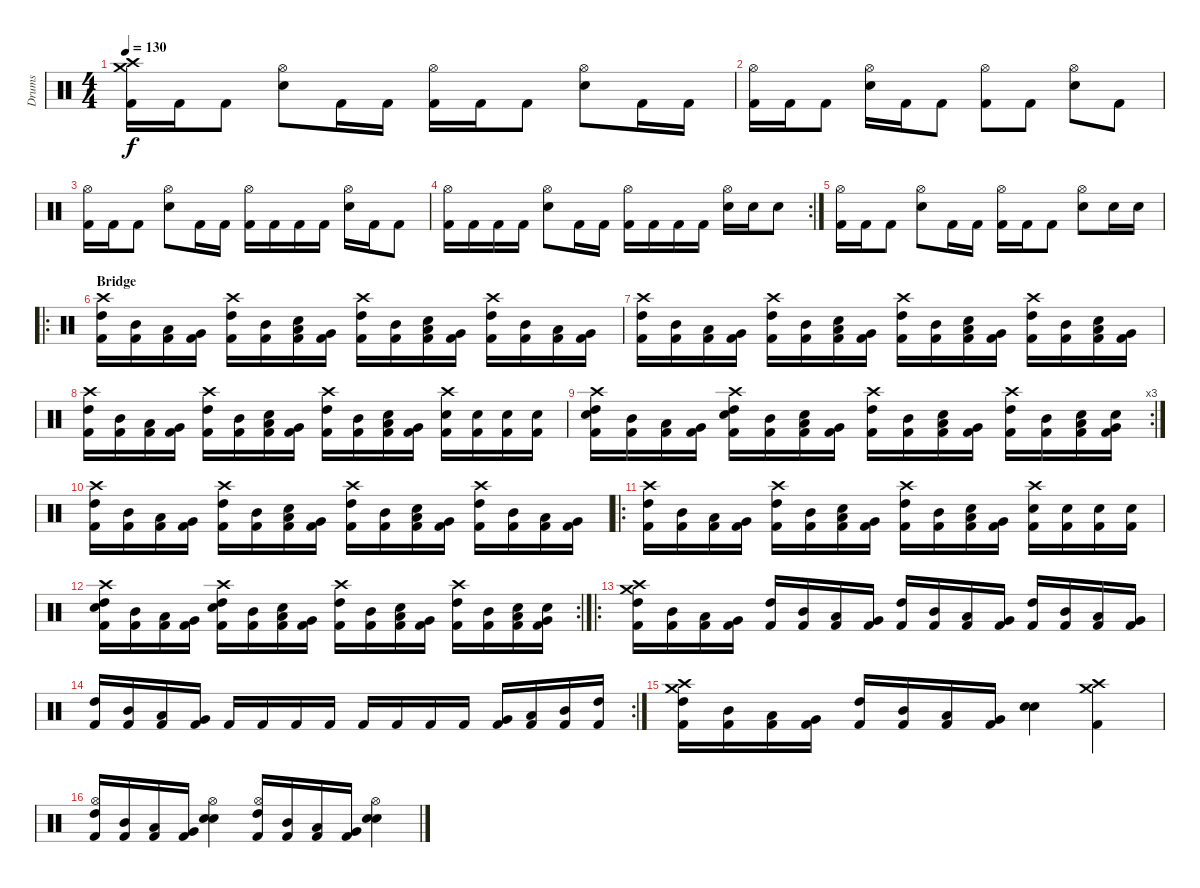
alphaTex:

\track ("Drums" "Drums") {instrument percussion}
\staff {score}
\articulation defaults
\ts (4 4)
\tempo 130
\clef neutral
\ks c
("Crash high (hit)" "Crash medium (hit)" "Kick (hit) 2").16{dy f} "Kick (hit) 2".16 "Kick (hit) 2".8 ("Hi-Hat (open)" "Electric Snare (hit)").8 "Kick (hit) 2".16 "Kick (hit) 2".16 ("Hi-Hat (open)" "Kick (hit) 2").16 "Kick (hit) 2".16 "Kick (hit) 2".8 ("Hi-Hat (open)" "Electric Snare (hit)").8 "Kick (hit) 2".16 "Kick (hit) 2".16 |
("Hi-Hat (open)" "Kick (hit) 2").16 "Kick (hit) 2".16 "Kick (hit) 2".8 ("Hi-Hat (open)" "Electric Snare (hit)").16 "Kick (hit) 2".16 "Kick (hit) 2".8 ("Hi-Hat (open)" "Kick (hit) 2").8 "Kick (hit) 2".8 ("Hi-Hat (open)" "Electric Snare (hit)").8 "Kick (hit) 2".8 |
("Hi-Hat (open)" "Kick (hit) 2").16 "Kick (hit) 2".16 "Kick (hit) 2".8 ("Hi-Hat (open)" "Electric Snare (hit)").8 "Kick (hit) 2".16 "Kick (hit) 2".16 ("Hi-Hat (open)" "Kick (hit) 2").16 "Kick (hit) 2".16 "Kick (hit) 2".16 "Kick (hit) 2".16 ("Hi-Hat (open)" "Electric Snare (hit)").16 "Kick (hit) 2".16 "Kick (hit) 2".8 |
\rc 2
("Hi-Hat (open)" "Kick (hit) 2").16 "Kick (hit) 2".16 "Kick (hit) 2".16 "Kick (hit) 2".16 ("Hi-Hat (open)" "Electric Snare (hit)").8 "Kick (hit) 2".16 "Kick (hit) 2".16 ("Hi-Hat (open)" "Kick (hit) 2").16 "Kick (hit) 2".16 "Kick (hit) 2".16 "Kick (hit) 2".16 ("Hi-Hat (open)" "Electric Snare (hit)").16 "Electric Snare (hit)".16 "Electric Snare (hit)".8 |
("Hi-Hat (open)" "Kick (hit) 2").16 "Kick (hit) 2".16 "Kick (hit) 2".8 ("Hi-Hat (open)" "Electric Snare (hit)").8 "Kick (hit) 2".16 "Kick (hit) 2".16 ("Hi-Hat (open)" "Kick (hit) 2").16 "Kick (hit) 2".16 "Kick (hit) 2".8 ("Hi-Hat (open)" "Electric Snare (hit)").8 "Electric Snare (hit)".16 "Electric Snare (hit)".16 |
\ro
\section ("" "Bridge")
("Crash high (hit)" "High Tom (hit)" "Kick (hit) 2").16 ("Mid Tom (hit)" "Kick (hit) 2").16 ("Low Tom (hit)" "Kick (hit) 2").16 ("Very Low Tom (hit)" "Kick (hit) 2").16 ("Crash high (hit)" "High Tom (hit)" "Kick (hit) 2").16 ("Mid Tom (hit)" "Kick (hit) 2").16 ("Low Tom (hit)" "Electric Snare (hit)" "Kick (hit) 2").16 ("Very Low Tom (hit)" "Kick (hit) 2").16 ("Crash high (hit)" "High Tom (hit)" "Kick (hit) 2").16 ("Mid Tom (hit)" "Kick (hit) 2").16 ("Low Tom (hit)" "Electric Snare (hit)" "Kick (hit) 2").16 ("Very Low Tom (hit)" "Kick (hit) 2").16 ("Crash high (hit)" "High Tom (hit)" "Kick (hit) 2").16 ("Mid Tom (hit)" "Kick (hit) 2").16 ("Low Tom (hit)" "Kick (hit) 2").16 ("Very Low Tom (hit)" "Kick (hit) 2").16 |
("Crash high (hit)" "High Tom (hit)" "Kick (hit) 2").16 ("Mid Tom (hit)" "Kick (hit) 2").16 ("Low Tom (hit)" "Kick (hit) 2").16 ("Very Low Tom (hit)" "Kick (hit) 2").16 ("Crash high (hit)" "High Tom (hit)" "Kick (hit) 2").16 ("Mid Tom (hit)" "Kick (hit) 2").16 ("Low Tom (hit)" "Electric Snare (hit)" "Kick (hit) 2").16 ("Very Low Tom (hit)" "Kick (hit) 2").16 ("Crash high (hit)" "High Tom (hit)" "Kick (hit) 2").16 ("Mid Tom (hit)" "Kick (hit) 2").16 ("Low Tom (hit)" "Electric Snare (hit)" "Kick (hit) 2").16 ("Very Low Tom (hit)" "Kick (hit) 2").16 ("Crash high (hit)" "High Tom (hit)" "Kick (hit) 2").16 ("Mid Tom (hit)" "Kick (hit) 2").16 ("Low Tom (hit)" "Electric Snare (hit)" "Kick (hit) 2").16 ("Very Low Tom (hit)" "Kick (hit) 2").16 |
("Crash high (hit)" "High Tom (hit)" "Kick (hit) 2").16 ("Mid Tom (hit)" "Kick (hit) 2").16 ("Low Tom (hit)" "Kick (hit) 2").16 ("Very Low Tom (hit)" "Kick (hit) 2").16 ("Crash high (hit)" "High Tom (hit)" "Kick (hit) 2").16 ("Mid Tom (hit)" "Kick (hit) 2").16 ("Low Tom (hit)" "Electric Snare (hit)" "Kick (hit) 2").16 ("Very Low Tom (hit)" "Kick (hit) 2").16 ("Crash high (hit)" "High Tom (hit)" "Kick (hit) 2").16 ("Mid Tom (hit)" "Kick (hit) 2").16 ("Low Tom (hit)" "Electric Snare (hit)" "Kick (hit) 2").16 ("Very Low Tom (hit)" "Kick (hit) 2").16 ("Crash high (hit)" "Electric Snare (hit)" "Kick (hit) 2").16 ("Electric Snare (hit)" "Kick (hit) 2").16 ("Electric Snare (hit)" "Kick (hit) 2").16 ("Electric Snare (hit)" "Kick (hit) 2").16 |
\rc 3
("Crash high (hit)" "High Tom (hit)" "Electric Snare (hit)" "Kick (hit) 2").16 ("Mid Tom (hit)" "Kick (hit) 2").16 ("Low Tom (hit)" "Kick (hit) 2").16 ("Very Low Tom (hit)" "Kick (hit) 2").16 ("Crash high (hit)" "High Tom (hit)" "Electric Snare (hit)" "Kick (hit) 2").16 ("Mid Tom (hit)" "Kick (hit) 2").16 ("Low Tom (hit)" "Electric Snare (hit)" "Kick (hit) 2").16 ("Very Low Tom (hit)" "Kick (hit) 2").16 ("Crash high (hit)" "High Tom (hit)" "Kick (hit) 2").16 ("Mid Tom (hit)" "Kick (hit) 2").16 ("Low Tom (hit)" "Electric Snare (hit)" "Kick (hit) 2").16 ("Very Low Tom (hit)" "Kick (hit) 2").16 ("Crash high (hit)" "High Tom (hit)" "Kick (hit) 2").16 ("Mid Tom (hit)" "Kick (hit) 2").16 ("Low Tom (hit)" "Electric Snare (hit)" "Kick (hit) 2").16 ("Very Low Tom (hit)" "Electric Snare (hit)" "Kick (hit) 2").16 |
("Crash high (hit)" "High Tom (hit)" "Kick (hit) 2").16 ("Mid Tom (hit)" "Kick (hit) 2").16 ("Low Tom (hit)" "Kick (hit) 2").16 ("Very Low Tom (hit)" "Kick (hit) 2").16 ("Crash high (hit)" "High Tom (hit)" "Kick (hit) 2").16 ("Mid Tom (hit)" "Kick (hit) 2").16 ("Low Tom (hit)" "Electric Snare (hit)" "Kick (hit) 2").16 ("Very Low Tom (hit)" "Kick (hit) 2").16 ("Crash high (hit)" "High Tom (hit)" "Kick (hit) 2").16 ("Mid Tom (hit)" "Kick (hit) 2").16 ("Low Tom (hit)" "Electric Snare (hit)" "Kick (hit) 2").16 ("Very Low Tom (hit)" "Kick (hit) 2").16 ("Crash high (hit)" "High Tom (hit)" "Kick (hit) 2").16 ("Mid Tom (hit)" "Kick (hit) 2").16 ("Low Tom (hit)" "Kick (hit) 2").16 ("Very Low Tom (hit)" "Kick (hit) 2").16 |
\ro
("Crash high (hit)" "High Tom (hit)" "Kick (hit) 2").16 ("Mid Tom (hit)" "Kick (hit) 2").16 ("Low Tom (hit)" "Kick (hit) 2").16 ("Very Low Tom (hit)" "Kick (hit) 2").16 ("Crash high (hit)" "High Tom (hit)" "Kick (hit) 2").16 ("Mid Tom (hit)" "Kick (hit) 2").16 ("Low Tom (hit)" "Electric Snare (hit)" "Kick (hit) 2").16 ("Very Low Tom (hit)" "Kick (hit) 2").16 ("Crash high (hit)" "High Tom (hit)" "Kick (hit) 2").16 ("Mid Tom (hit)" "Kick (hit) 2").16 ("Low Tom (hit)" "Electric Snare (hit)" "Kick (hit) 2").16 ("Very Low Tom (hit)" "Kick (hit) 2").16 ("Crash high (hit)" "Electric Snare (hit)" "Kick (hit) 2").16 ("Electric Snare (hit)" "Kick (hit) 2").16 ("Electric Snare (hit)" "Kick (hit) 2").16 ("Electric Snare (hit)" "Kick (hit) 2").16 |
\rc 2
("Crash high (hit)" "High Tom (hit)" "Electric Snare (hit)" "Kick (hit) 2").16 ("Mid Tom (hit)" "Kick (hit) 2").16 ("Low Tom (hit)" "Kick (hit) 2").16 ("Very Low Tom (hit)" "Kick (hit) 2").16 ("Crash high (hit)" "High Tom (hit)" "Electric Snare (hit)" "Kick (hit) 2").16 ("Mid Tom (hit)" "Kick (hit) 2").16 ("Low Tom (hit)" "Electric Snare (hit)" "Kick (hit) 2").16 ("Very Low Tom (hit)" "Kick (hit) 2").16 ("Crash high (hit)" "High Tom (hit)" "Kick (hit) 2").16 ("Mid Tom (hit)" "Kick (hit) 2").16 ("Low Tom (hit)" "Electric Snare (hit)" "Kick (hit) 2").16 ("Very Low Tom (hit)" "Kick (hit) 2").16 ("Crash high (hit)" "High Tom (hit)" "Kick (hit) 2").16 ("Mid Tom (hit)" "Kick (hit) 2").16 ("Low Tom (hit)" "Electric Snare (hit)" "Kick (hit) 2").16 ("Very Low Tom (hit)" "Electric Snare (hit)" "Kick (hit) 2").16 |
\ro
("Crash high (hit)" "Crash medium (hit)" "High Tom (hit)" "Kick (hit) 2").16 ("Mid Tom (hit)" "Kick (hit) 2").16 ("Low Tom (hit)" "Kick (hit) 2").16 ("Very Low Tom (hit)" "Kick (hit) 2").16 ("High Tom (hit)" "Kick (hit) 2").16 ("Mid Tom (hit)" "Kick (hit) 2").16 ("Low Tom (hit)" "Kick (hit) 2").16 ("Very Low Tom (hit)" "Kick (hit) 2").16 ("High Tom (hit)" "Kick (hit) 2").16 ("Mid Tom (hit)" "Kick (hit) 2").16 ("Low Tom (hit)" "Kick (hit) 2").16 ("Very Low Tom (hit)" "Kick (hit) 2").16 ("High Tom (hit)" "Kick (hit) 2").16 ("Mid Tom (hit)" "Kick (hit) 2").16 ("Low Tom (hit)" "Kick (hit) 2").16 ("Very Low Tom (hit)" "Kick (hit) 2").16 |
\rc 2
("High Tom (hit)" "Kick (hit) 2").16 ("Mid Tom (hit)" "Kick (hit) 2").16 ("Low Tom (hit)" "Kick (hit) 2").16 ("Very Low Tom (hit)" "Kick (hit) 2").16 "Kick (hit) 2".16 "Kick (hit) 2".16 "Kick (hit) 2".16 "Kick (hit) 2".16 "Kick (hit) 2".16 "Kick (hit) 2".16 "Kick (hit) 2".16 "Kick (hit) 2".16 ("Very Low Tom (hit)" "Kick (hit) 2").16 ("Low Tom (hit)" "Kick (hit) 2").16 ("Mid Tom (hit)" "Kick (hit) 2").16 ("High Tom (hit)" "Kick (hit) 2").16 |
("Crash high (hit)" "Crash medium (hit)" "High Tom (hit)" "Kick (hit) 2").16 ("Mid Tom (hit)" "Kick (hit) 2").16 ("Low Tom (hit)" "Kick (hit) 2").16 ("Very Low Tom (hit)" "Kick (hit) 2").16 ("High Tom (hit)" "Kick (hit) 2").16 ("Mid Tom (hit)" "Kick (hit) 2").16 ("Low Tom (hit)" "Kick (hit) 2").16 ("Very Low Tom (hit)" "Kick (hit) 2").16 ("Electric Snare (hit)" "Electric Snare (hit)").4 ("Crash high (hit)" "Crash medium (hit)" "Kick (hit) 2").4 |
("High Tom (hit)" "Hi-Hat (open)" "Kick (hit) 2").16 ("Mid Tom (hit)" "Kick (hit) 2").16 ("Low Tom (hit)" "Kick (hit) 2").16 ("Very Low Tom (hit)" "Kick (hit) 2").16 ("Hi-Hat (open)" "Electric Snare (hit)" "Electric Snare (hit)").4 ("High Tom (hit)" "Hi-Hat (open)" "Kick (hit) 2").16 ("Mid Tom (hit)" "Kick (hit) 2").16 ("Low Tom (hit)" "Kick (hit) 2").16 ("Very Low Tom (hit)" "Kick (hit) 2").16 ("Hi-Hat (open)" "Electric Snare (hit)" "Electric Snare (hit)").4
